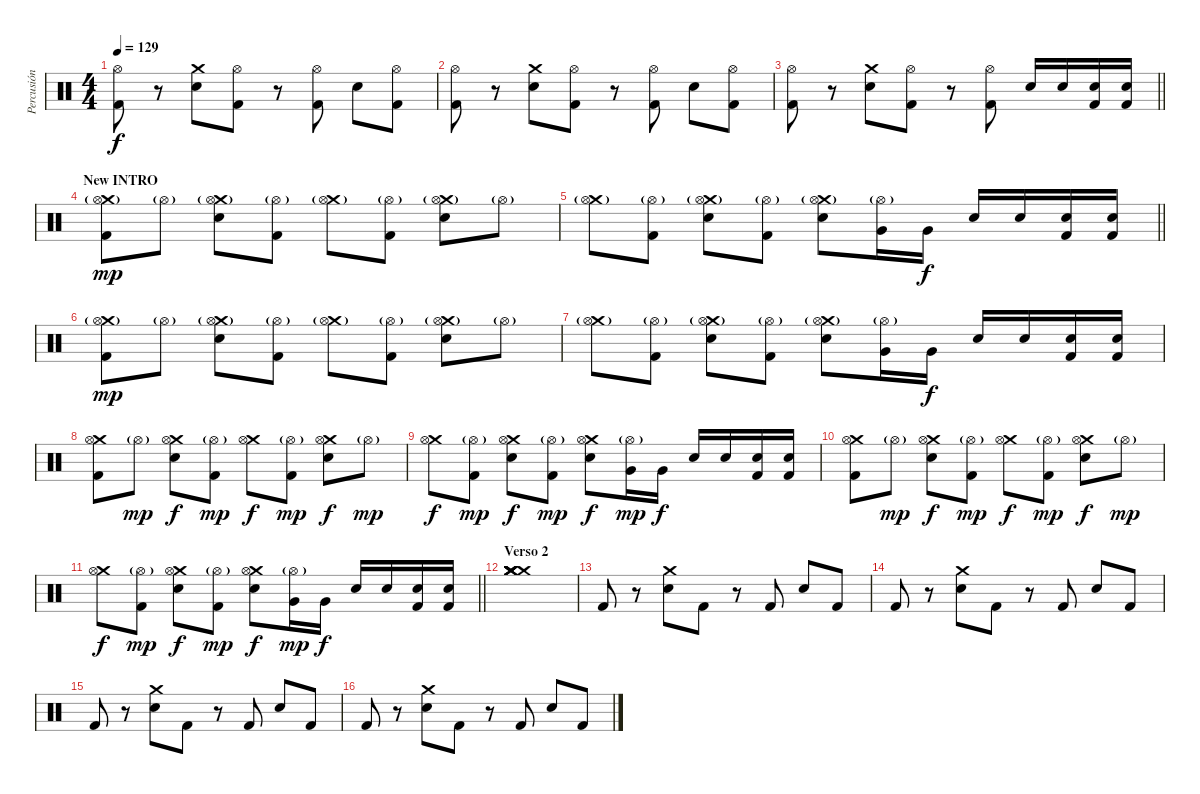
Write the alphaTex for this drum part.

\track ("Percusión" "Percusión") {instrument percussion}
\staff {score}
\articulation defaults
\ts (4 4)
\tempo 129
\clef neutral
\ks c
("Hi-Hat (open)" "Kick (hit) 2").8{dy f} r.8 ("Crash medium (hit)" "Snare (hit) 2").8 ("Hi-Hat (open)" "Kick (hit) 2").8 r.8 ("Hi-Hat (open)" "Kick (hit) 2").8 "Snare (hit) 2".8 ("Hi-Hat (open)" "Kick (hit) 2").8 |
("Hi-Hat (open)" "Kick (hit) 2").8 r.8 ("Crash medium (hit)" "Snare (hit) 2").8 ("Hi-Hat (open)" "Kick (hit) 2").8 r.8 ("Hi-Hat (open)" "Kick (hit) 2").8 "Snare (hit) 2".8 ("Hi-Hat (open)" "Kick (hit) 2").8 |
\barLineRight lightlight
("Hi-Hat (open)" "Kick (hit) 2").8 r.8 ("Crash medium (hit)" "Snare (hit) 2").8 ("Hi-Hat (open)" "Kick (hit) 2").8 r.8 ("Hi-Hat (open)" "Kick (hit) 2").8 "Snare (hit) 2".16 "Snare (hit) 2".16 ("Snare (hit) 2" "Kick (hit) 2").16 ("Snare (hit) 2" "Kick (hit) 2").16 |
\section ("" "New INTRO")
("Crash medium (hit)"{g} "Hi-Hat (open)" "Kick (hit) 2").8{dy mp} "Hi-Hat (open)"{g}.8 ("Crash medium (hit)"{g} "Hi-Hat (open)" "Snare (hit) 2").8 ("Hi-Hat (open)"{g} "Kick (hit) 2").8 ("Crash medium (hit)"{g} "Hi-Hat (open)").8 ("Hi-Hat (open)"{g} "Kick (hit) 2").8 ("Crash medium (hit)"{g} "Hi-Hat (open)" "Snare (hit) 2").8 "Hi-Hat (open)"{g}.8 |
\barLineRight lightlight
("Crash medium (hit)"{g} "Hi-Hat (open)").8 ("Hi-Hat (open)"{g} "Kick (hit) 2").8 ("Crash medium (hit)"{g} "Hi-Hat (open)" "Snare (hit) 2").8 ("Hi-Hat (open)"{g} "Kick (hit) 2").8 ("Crash medium (hit)"{g} "Hi-Hat (open)" "Snare (hit) 2").8 ("Hi-Hat (open)"{g} "Very Low Tom (hit)").16 "Very Low Tom (hit)".16{dy f} "Snare (hit) 2".16 "Snare (hit) 2".16 ("Snare (hit) 2" "Kick (hit) 2").16 ("Snare (hit) 2" "Kick (hit) 2").16 |
\section ("" "")
("Crash medium (hit)"{g} "Hi-Hat (open)" "Kick (hit) 2").8{dy mp} "Hi-Hat (open)"{g}.8 ("Crash medium (hit)"{g} "Hi-Hat (open)" "Snare (hit) 2").8 ("Hi-Hat (open)"{g} "Kick (hit) 2").8 ("Crash medium (hit)"{g} "Hi-Hat (open)").8 ("Hi-Hat (open)"{g} "Kick (hit) 2").8 ("Crash medium (hit)"{g} "Hi-Hat (open)" "Snare (hit) 2").8 "Hi-Hat (open)"{g}.8 |
("Crash medium (hit)"{g} "Hi-Hat (open)").8 ("Hi-Hat (open)"{g} "Kick (hit) 2").8 ("Crash medium (hit)"{g} "Hi-Hat (open)" "Snare (hit) 2").8 ("Hi-Hat (open)"{g} "Kick (hit) 2").8 ("Crash medium (hit)"{g} "Hi-Hat (open)" "Snare (hit) 2").8 ("Hi-Hat (open)"{g} "Very Low Tom (hit)").16 "Very Low Tom (hit)".16{dy f} "Snare (hit) 2".16 "Snare (hit) 2".16 ("Snare (hit) 2" "Kick (hit) 2").16 ("Snare (hit) 2" "Kick (hit) 2").16 |
("Crash medium (hit)" "Hi-Hat (open)" "Kick (hit) 2").8 "Hi-Hat (open)"{g}.8{dy mp} ("Crash medium (hit)" "Hi-Hat (open)" "Snare (hit) 2").8{dy f} ("Hi-Hat (open)"{g} "Kick (hit) 2").8{dy mp} ("Crash medium (hit)" "Hi-Hat (open)").8{dy f} ("Hi-Hat (open)"{g} "Kick (hit) 2").8{dy mp} ("Crash medium (hit)" "Hi-Hat (open)" "Snare (hit) 2").8{dy f} "Hi-Hat (open)"{g}.8{dy mp} |
("Crash medium (hit)" "Hi-Hat (open)").8{dy f} ("Hi-Hat (open)"{g} "Kick (hit) 2").8{dy mp} ("Crash medium (hit)" "Hi-Hat (open)" "Snare (hit) 2").8{dy f} ("Hi-Hat (open)"{g} "Kick (hit) 2").8{dy mp} ("Crash medium (hit)" "Hi-Hat (open)" "Snare (hit) 2").8{dy f} ("Hi-Hat (open)"{g} "Very Low Tom (hit)").16{dy mp} "Very Low Tom (hit)".16{dy f} "Snare (hit) 2".16 "Snare (hit) 2".16 ("Snare (hit) 2" "Kick (hit) 2").16 ("Snare (hit) 2" "Kick (hit) 2").16 |
("Crash medium (hit)" "Hi-Hat (open)" "Kick (hit) 2").8 "Hi-Hat (open)"{g}.8{dy mp} ("Crash medium (hit)" "Hi-Hat (open)" "Snare (hit) 2").8{dy f} ("Hi-Hat (open)"{g} "Kick (hit) 2").8{dy mp} ("Crash medium (hit)" "Hi-Hat (open)").8{dy f} ("Hi-Hat (open)"{g} "Kick (hit) 2").8{dy mp} ("Crash medium (hit)" "Hi-Hat (open)" "Snare (hit) 2").8{dy f} "Hi-Hat (open)"{g}.8{dy mp} |
\barLineRight lightlight
("Crash medium (hit)" "Hi-Hat (open)").8{dy f} ("Hi-Hat (open)"{g} "Kick (hit) 2").8{dy mp} ("Crash medium (hit)" "Hi-Hat (open)" "Snare (hit) 2").8{dy f} ("Hi-Hat (open)"{g} "Kick (hit) 2").8{dy mp} ("Crash medium (hit)" "Hi-Hat (open)" "Snare (hit) 2").8{dy f} ("Hi-Hat (open)"{g} "Very Low Tom (hit)").16{dy mp} "Very Low Tom (hit)".16{dy f} "Snare (hit) 2".16 "Snare (hit) 2".16 ("Snare (hit) 2" "Kick (hit) 2").16 ("Snare (hit) 2" "Kick (hit) 2").16 |
\section ("" "Verso 2")
("Crash medium (hit)" "Crash medium (hit)" "Crash medium (hit)" "Crash medium (hit)" "Crash medium (hit)" "Crash medium (hit)").1 |
"Kick (hit) 2".8 r.8 ("Crash medium (hit)" "Snare (hit) 2").8 "Kick (hit) 2".8 r.8 "Kick (hit) 2".8 "Snare (hit) 2".8 "Kick (hit) 2".8 |
"Kick (hit) 2".8 r.8 ("Crash medium (hit)" "Snare (hit) 2").8 "Kick (hit) 2".8 r.8 "Kick (hit) 2".8 "Snare (hit) 2".8 "Kick (hit) 2".8 |
"Kick (hit) 2".8 r.8 ("Crash medium (hit)" "Snare (hit) 2").8 "Kick (hit) 2".8 r.8 "Kick (hit) 2".8 "Snare (hit) 2".8 "Kick (hit) 2".8 |
"Kick (hit) 2".8 r.8 ("Crash medium (hit)" "Snare (hit) 2").8 "Kick (hit) 2".8 r.8 "Kick (hit) 2".8 "Snare (hit) 2".8 "Kick (hit) 2".8
